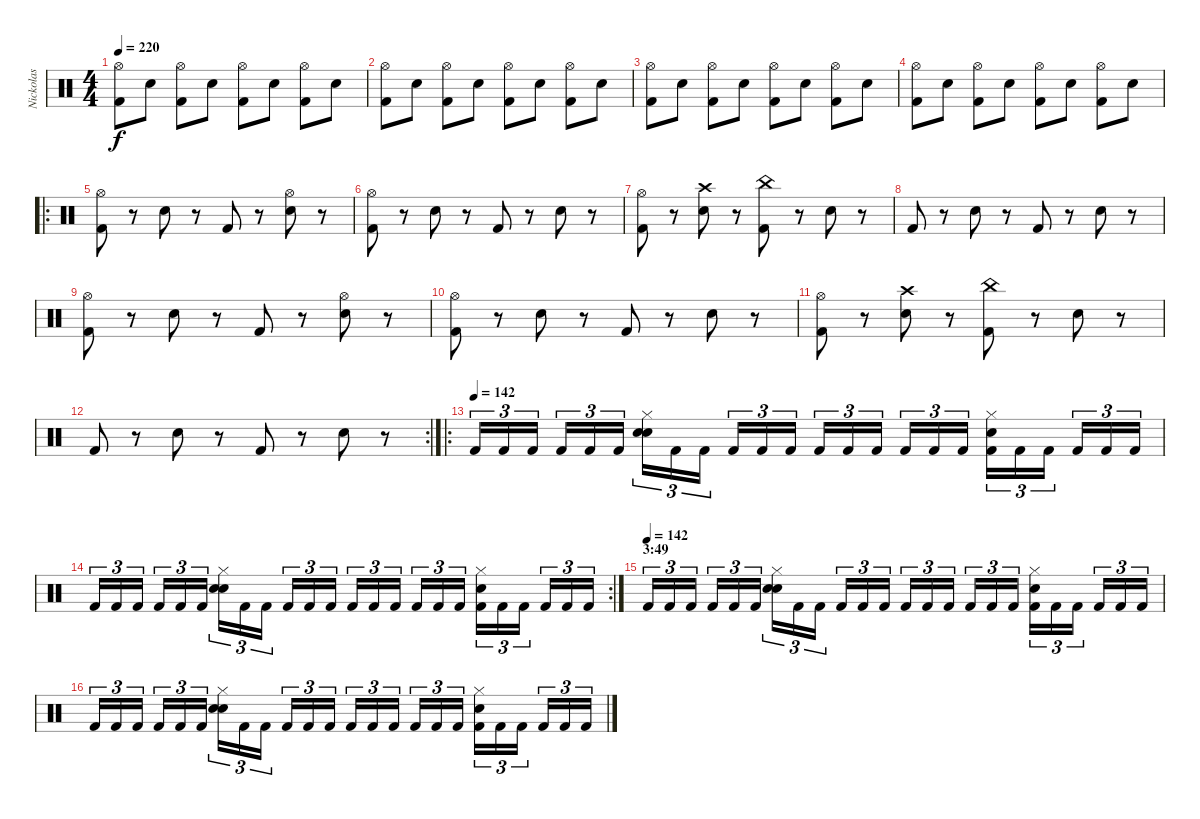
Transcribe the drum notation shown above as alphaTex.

\track ("Nickolas " "Nickolas ") {instrument percussion}
\staff {score}
\articulation defaults
\ts (4 4)
\tempo 220
\clef neutral
\ks c
("Kick (hit) 2" "Hi-Hat (open)").8{dy f} "Snare (hit) 2".8 ("Kick (hit) 2" "Hi-Hat (open)").8 "Snare (hit) 2".8 ("Kick (hit) 2" "Hi-Hat (open)").8 "Snare (hit) 2".8 ("Kick (hit) 2" "Hi-Hat (open)").8 "Snare (hit) 2".8 |
("Kick (hit) 2" "Hi-Hat (open)").8 "Snare (hit) 2".8 ("Kick (hit) 2" "Hi-Hat (open)").8 "Snare (hit) 2".8 ("Kick (hit) 2" "Hi-Hat (open)").8 "Snare (hit) 2".8 ("Kick (hit) 2" "Hi-Hat (open)").8 "Snare (hit) 2".8 |
("Kick (hit) 2" "Hi-Hat (open)").8 "Snare (hit) 2".8 ("Kick (hit) 2" "Hi-Hat (open)").8 "Snare (hit) 2".8 ("Kick (hit) 2" "Hi-Hat (open)").8 "Snare (hit) 2".8 ("Kick (hit) 2" "Hi-Hat (open)").8 "Snare (hit) 2".8 |
("Kick (hit) 2" "Hi-Hat (open)").8 "Snare (hit) 2".8 ("Kick (hit) 2" "Hi-Hat (open)").8 "Snare (hit) 2".8 ("Kick (hit) 2" "Hi-Hat (open)").8 "Snare (hit) 2".8 ("Kick (hit) 2" "Hi-Hat (open)").8 "Snare (hit) 2".8 |
\ro
("Kick (hit) 2" "Hi-Hat (open)").8 r.8 "Snare (hit) 2".8 r.8 "Kick (hit) 2".8 r.8 ("Snare (hit) 2" "Hi-Hat (open)").8 r.8 |
("Kick (hit) 2" "Hi-Hat (open)").8 r.8 "Snare (hit) 2".8 r.8 "Kick (hit) 2".8 r.8 "Snare (hit) 2".8 r.8 |
("Kick (hit) 2" "Hi-Hat (open)").8 r.8 ("Snare (hit) 2" "Crash high (hit)").8 r.8 ("Kick (hit) 2" "China (hit)").8 r.8 "Snare (hit) 2".8 r.8 |
"Kick (hit) 2".8 r.8 "Snare (hit) 2".8 r.8 "Kick (hit) 2".8 r.8 "Snare (hit) 2".8 r.8 |
("Kick (hit) 2" "Hi-Hat (open)").8 r.8 "Snare (hit) 2".8 r.8 "Kick (hit) 2".8 r.8 ("Snare (hit) 2" "Hi-Hat (open)").8 r.8 |
("Kick (hit) 2" "Hi-Hat (open)").8 r.8 "Snare (hit) 2".8 r.8 "Kick (hit) 2".8 r.8 "Snare (hit) 2".8 r.8 |
("Kick (hit) 2" "Hi-Hat (open)").8 r.8 ("Snare (hit) 2" "Crash high (hit)").8 r.8 ("Kick (hit) 2" "China (hit)").8 r.8 "Snare (hit) 2".8 r.8 |
\rc 2 "Kick (hit) 2".8
r.8 "Snare (hit) 2".8 r.8 "Kick (hit) 2".8 r.8 "Snare (hit) 2".8 r.8 |
\ro
\tempo (142)
"Kick (hit) 2".16{tu (3 2)} "Kick (hit) 2".16{tu (3 2)} "Kick (hit) 2".16{tu (3 2)} "Kick (hit) 2".16{tu (3 2)} "Kick (hit) 2".16{tu (3 2)} "Kick (hit) 2".16{tu (3 2)} ("Snare (hit) 2" "Snare (hit) 2" "Hi-Hat (closed)").16{tu (3 2)} "Kick (hit) 2".16{tu (3 2)} "Kick (hit) 2".16{tu (3 2)} "Kick (hit) 2".16{tu (3 2)} "Kick (hit) 2".16{tu (3 2)} "Kick (hit) 2".16{tu (3 2)} "Kick (hit) 2".16{tu (3 2)} "Kick (hit) 2".16{tu (3 2)} "Kick (hit) 2".16{tu (3 2)} "Kick (hit) 2".16{tu (3 2)} "Kick (hit) 2".16{tu (3 2)} "Kick (hit) 2".16{tu (3 2)} ("Kick (hit) 2" "Snare (hit) 2" "Hi-Hat (closed)").16{tu (3 2)} "Kick (hit) 2".16{tu (3 2)} "Kick (hit) 2".16{tu (3 2)} "Kick (hit) 2".16{tu (3 2)} "Kick (hit) 2".16{tu (3 2)} "Kick (hit) 2".16{tu (3 2)} |
\rc 2 "Kick (hit) 2".16{tu (3 2)} "Kick (hit) 2".16{tu (3 2)} "Kick (hit) 2".16{tu (3 2)} "Kick (hit) 2".16{tu (3 2)} "Kick (hit) 2".16{tu (3 2)} "Kick (hit) 2".16{tu (3 2)}
("Snare (hit) 2" "Snare (hit) 2" "Hi-Hat (closed)").16{tu (3 2)} "Kick (hit) 2".16{tu (3 2)} "Kick (hit) 2".16{tu (3 2)} "Kick (hit) 2".16{tu (3 2)} "Kick (hit) 2".16{tu (3 2)} "Kick (hit) 2".16{tu (3 2)} "Kick (hit) 2".16{tu (3 2)} "Kick (hit) 2".16{tu (3 2)} "Kick (hit) 2".16{tu (3 2)} "Kick (hit) 2".16{tu (3 2)} "Kick (hit) 2".16{tu (3 2)} "Kick (hit) 2".16{tu (3 2)} ("Kick (hit) 2" "Snare (hit) 2" "Hi-Hat (closed)").16{tu (3 2)} "Kick (hit) 2".16{tu (3 2)} "Kick (hit) 2".16{tu (3 2)} "Kick (hit) 2".16{tu (3 2)} "Kick (hit) 2".16{tu (3 2)} "Kick (hit) 2".16{tu (3 2)} |
\section ("" "3:49")
\tempo (142)
"Kick (hit) 2".16{tu (3 2)} "Kick (hit) 2".16{tu (3 2)} "Kick (hit) 2".16{tu (3 2)} "Kick (hit) 2".16{tu (3 2)} "Kick (hit) 2".16{tu (3 2)} "Kick (hit) 2".16{tu (3 2)} ("Snare (hit) 2" "Snare (hit) 2" "Hi-Hat (closed)").16{tu (3 2)} "Kick (hit) 2".16{tu (3 2)} "Kick (hit) 2".16{tu (3 2)} "Kick (hit) 2".16{tu (3 2)} "Kick (hit) 2".16{tu (3 2)} "Kick (hit) 2".16{tu (3 2)} "Kick (hit) 2".16{tu (3 2)} "Kick (hit) 2".16{tu (3 2)} "Kick (hit) 2".16{tu (3 2)} "Kick (hit) 2".16{tu (3 2)} "Kick (hit) 2".16{tu (3 2)} "Kick (hit) 2".16{tu (3 2)} ("Kick (hit) 2" "Snare (hit) 2" "Hi-Hat (closed)").16{tu (3 2)} "Kick (hit) 2".16{tu (3 2)} "Kick (hit) 2".16{tu (3 2)} "Kick (hit) 2".16{tu (3 2)} "Kick (hit) 2".16{tu (3 2)} "Kick (hit) 2".16{tu (3 2)} |
"Kick (hit) 2".16{tu (3 2)} "Kick (hit) 2".16{tu (3 2)} "Kick (hit) 2".16{tu (3 2)} "Kick (hit) 2".16{tu (3 2)} "Kick (hit) 2".16{tu (3 2)} "Kick (hit) 2".16{tu (3 2)} ("Snare (hit) 2" "Snare (hit) 2" "Hi-Hat (closed)").16{tu (3 2)} "Kick (hit) 2".16{tu (3 2)} "Kick (hit) 2".16{tu (3 2)} "Kick (hit) 2".16{tu (3 2)} "Kick (hit) 2".16{tu (3 2)} "Kick (hit) 2".16{tu (3 2)} "Kick (hit) 2".16{tu (3 2)} "Kick (hit) 2".16{tu (3 2)} "Kick (hit) 2".16{tu (3 2)} "Kick (hit) 2".16{tu (3 2)} "Kick (hit) 2".16{tu (3 2)} "Kick (hit) 2".16{tu (3 2)} ("Kick (hit) 2" "Snare (hit) 2" "Hi-Hat (closed)").16{tu (3 2)} "Kick (hit) 2".16{tu (3 2)} "Kick (hit) 2".16{tu (3 2)} "Kick (hit) 2".16{tu (3 2)} "Kick (hit) 2".16{tu (3 2)} "Kick (hit) 2".16{tu (3 2)}
